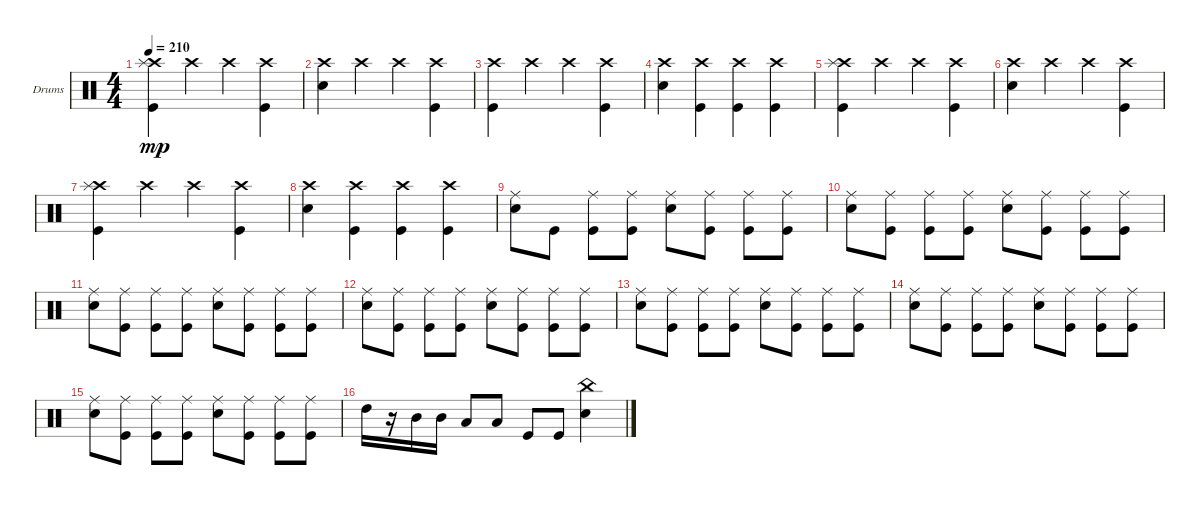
\bracketExtendMode groupsimilarinstruments
\firstSystemTrackNameOrientation horizontal
\otherSystemsTrackNameOrientation horizontal
\track ("Drumkit" "Drums") {instrument percussion}
\staff {score}
\articulation defaults
\ts (4 4)
\tempo 210
\clef neutral
\ks c
("Kick (hit)" "Crash high (hit)" "Splash (hit)").4{dy mp} "Crash high (hit)".4 "Crash high (hit)".4 ("Kick (hit)" "Crash high (hit)").4 |
("Snare (hit) 2" "Crash high (hit)").4 "Crash high (hit)".4 "Crash high (hit)".4 ("Kick (hit)" "Crash high (hit)").4 |
("Kick (hit)" "Crash high (hit)").4 "Crash high (hit)".4 "Crash high (hit)".4 ("Kick (hit)" "Crash high (hit)").4 |
("Snare (hit) 2" "Crash high (hit)").4 ("Kick (hit)" "Crash high (hit)").4 ("Kick (hit)" "Crash high (hit)").4 ("Kick (hit)" "Crash high (hit)").4 |
("Kick (hit)" "Crash high (hit)" "Splash (hit)").4 "Crash high (hit)".4 "Crash high (hit)".4 ("Kick (hit)" "Crash high (hit)").4 |
("Snare (hit) 2" "Crash high (hit)").4 "Crash high (hit)".4 "Crash high (hit)".4 ("Kick (hit)" "Crash high (hit)").4 |
("Kick (hit)" "Crash high (hit)" "Splash (hit)").4 "Crash high (hit)".4 "Crash high (hit)".4 ("Kick (hit)" "Crash high (hit)").4 |
("Snare (hit) 2" "Crash high (hit)").4 ("Kick (hit)" "Crash high (hit)").4 ("Kick (hit)" "Crash high (hit)").4 ("Kick (hit)" "Crash high (hit)").4 |
("Snare (hit) 2" "Ride (middle)").8 "Kick (hit)".8 ("Kick (hit)" "Ride (middle)").8 ("Kick (hit)" "Ride (middle)").8 ("Snare (hit) 2" "Ride (middle)").8 ("Kick (hit)" "Ride (middle)").8 ("Kick (hit)" "Ride (middle)").8 ("Kick (hit)" "Ride (middle)").8 |
("Snare (hit) 2" "Ride (middle)").8 ("Kick (hit)" "Ride (middle)").8 ("Kick (hit)" "Ride (middle)").8 ("Kick (hit)" "Ride (middle)").8 ("Snare (hit) 2" "Ride (middle)").8 ("Kick (hit)" "Ride (middle)").8 ("Kick (hit)" "Ride (middle)").8 ("Kick (hit)" "Ride (middle)").8 |
("Snare (hit) 2" "Ride (middle)").8 ("Kick (hit)" "Ride (middle)").8 ("Kick (hit)" "Ride (middle)").8 ("Kick (hit)" "Ride (middle)").8 ("Snare (hit) 2" "Ride (middle)").8 ("Kick (hit)" "Ride (middle)").8 ("Kick (hit)" "Ride (middle)").8 ("Kick (hit)" "Ride (middle)").8 |
("Snare (hit) 2" "Ride (middle)").8 ("Kick (hit)" "Ride (middle)").8 ("Kick (hit)" "Ride (middle)").8 ("Kick (hit)" "Ride (middle)").8 ("Snare (hit) 2" "Ride (middle)").8 ("Kick (hit)" "Ride (middle)").8 ("Kick (hit)" "Ride (middle)").8 ("Kick (hit)" "Ride (middle)").8 |
("Snare (hit) 2" "Ride (middle)").8 ("Kick (hit)" "Ride (middle)").8 ("Kick (hit)" "Ride (middle)").8 ("Kick (hit)" "Ride (middle)").8 ("Snare (hit) 2" "Ride (middle)").8 ("Kick (hit)" "Ride (middle)").8 ("Kick (hit)" "Ride (middle)").8 ("Kick (hit)" "Ride (middle)").8 |
("Snare (hit) 2" "Ride (middle)").8 ("Kick (hit)" "Ride (middle)").8 ("Kick (hit)" "Ride (middle)").8 ("Kick (hit)" "Ride (middle)").8 ("Snare (hit) 2" "Ride (middle)").8 ("Kick (hit)" "Ride (middle)").8 ("Kick (hit)" "Ride (middle)").8 ("Kick (hit)" "Ride (middle)").8 |
("Snare (hit) 2" "Ride (middle)").8 ("Kick (hit)" "Ride (middle)").8 ("Kick (hit)" "Ride (middle)").8 ("Kick (hit)" "Ride (middle)").8 ("Snare (hit) 2" "Ride (middle)").8 ("Kick (hit)" "Ride (middle)").8 ("Kick (hit)" "Ride (middle)").8 ("Kick (hit)" "Ride (middle)").8 |
"High Tom (hit)".16 r.16 "Mid Tom (hit)".16 "Mid Tom (hit)".16 "Low Tom (hit)".8 "Low Tom (hit)".8 "Kick (hit)".8 "Kick (hit)".8 ("Snare (hit) 2" "China (hit)").4
